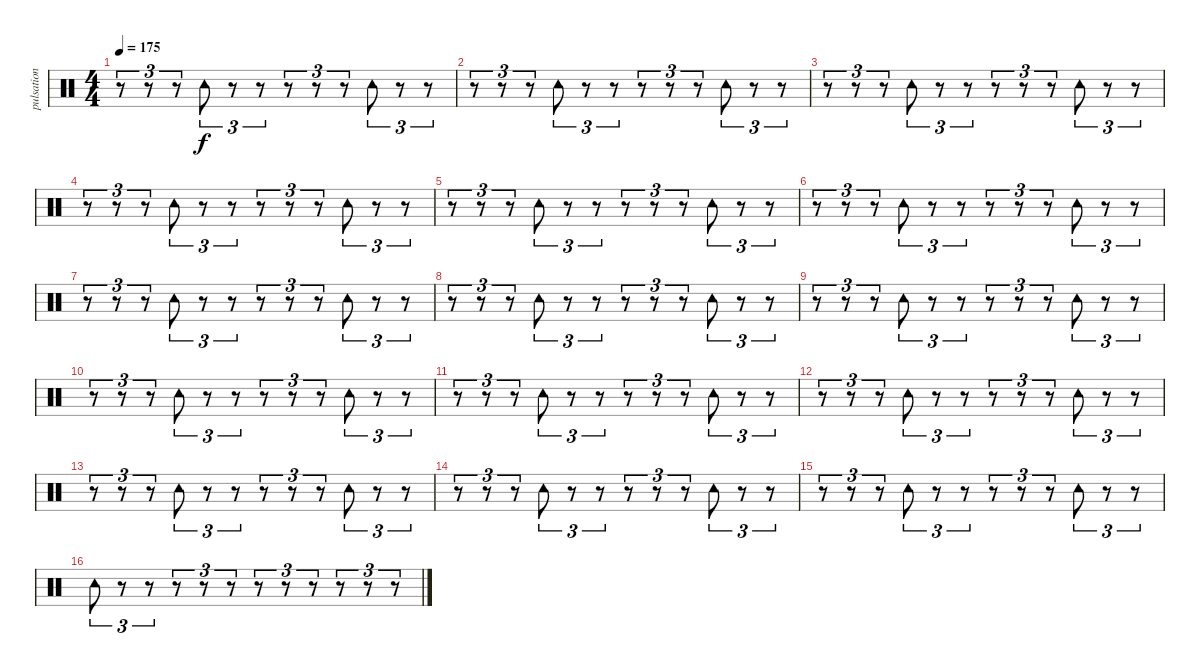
\track ("pulsation" "pulsation") {instrument percussion}
\staff {score}
\articulation defaults
\ts (4 4)
\tempo 175
\clef neutral
\ks c
r.8{tu (3 2) dy f} r.8{tu (3 2)} r.8{tu (3 2)} "Tambourine (hit)".8{tu (3 2)} r.8{tu (3 2)} r.8{tu (3 2)} r.8{tu (3 2)} r.8{tu (3 2)} r.8{tu (3 2)} "Tambourine (hit)".8{tu (3 2)} r.8{tu (3 2)} r.8{tu (3 2)} |
r.8{tu (3 2)} r.8{tu (3 2)} r.8{tu (3 2)} "Tambourine (hit)".8{tu (3 2)} r.8{tu (3 2)} r.8{tu (3 2)} r.8{tu (3 2)} r.8{tu (3 2)} r.8{tu (3 2)} "Tambourine (hit)".8{tu (3 2)} r.8{tu (3 2)} r.8{tu (3 2)} |
r.8{tu (3 2)} r.8{tu (3 2)} r.8{tu (3 2)} "Tambourine (hit)".8{tu (3 2)} r.8{tu (3 2)} r.8{tu (3 2)} r.8{tu (3 2)} r.8{tu (3 2)} r.8{tu (3 2)} "Tambourine (hit)".8{tu (3 2)} r.8{tu (3 2)} r.8{tu (3 2)} |
r.8{tu (3 2)} r.8{tu (3 2)} r.8{tu (3 2)} "Tambourine (hit)".8{tu (3 2)} r.8{tu (3 2)} r.8{tu (3 2)} r.8{tu (3 2)} r.8{tu (3 2)} r.8{tu (3 2)} "Tambourine (hit)".8{tu (3 2)} r.8{tu (3 2)} r.8{tu (3 2)} |
r.8{tu (3 2)} r.8{tu (3 2)} r.8{tu (3 2)} "Tambourine (hit)".8{tu (3 2)} r.8{tu (3 2)} r.8{tu (3 2)} r.8{tu (3 2)} r.8{tu (3 2)} r.8{tu (3 2)} "Tambourine (hit)".8{tu (3 2)} r.8{tu (3 2)} r.8{tu (3 2)} |
r.8{tu (3 2)} r.8{tu (3 2)} r.8{tu (3 2)} "Tambourine (hit)".8{tu (3 2)} r.8{tu (3 2)} r.8{tu (3 2)} r.8{tu (3 2)} r.8{tu (3 2)} r.8{tu (3 2)} "Tambourine (hit)".8{tu (3 2)} r.8{tu (3 2)} r.8{tu (3 2)} |
r.8{tu (3 2)} r.8{tu (3 2)} r.8{tu (3 2)} "Tambourine (hit)".8{tu (3 2)} r.8{tu (3 2)} r.8{tu (3 2)} r.8{tu (3 2)} r.8{tu (3 2)} r.8{tu (3 2)} "Tambourine (hit)".8{tu (3 2)} r.8{tu (3 2)} r.8{tu (3 2)} |
r.8{tu (3 2)} r.8{tu (3 2)} r.8{tu (3 2)} "Tambourine (hit)".8{tu (3 2)} r.8{tu (3 2)} r.8{tu (3 2)} r.8{tu (3 2)} r.8{tu (3 2)} r.8{tu (3 2)} "Tambourine (hit)".8{tu (3 2)} r.8{tu (3 2)} r.8{tu (3 2)} |
r.8{tu (3 2)} r.8{tu (3 2)} r.8{tu (3 2)} "Tambourine (hit)".8{tu (3 2)} r.8{tu (3 2)} r.8{tu (3 2)} r.8{tu (3 2)} r.8{tu (3 2)} r.8{tu (3 2)} "Tambourine (hit)".8{tu (3 2)} r.8{tu (3 2)} r.8{tu (3 2)} |
r.8{tu (3 2)} r.8{tu (3 2)} r.8{tu (3 2)} "Tambourine (hit)".8{tu (3 2)} r.8{tu (3 2)} r.8{tu (3 2)} r.8{tu (3 2)} r.8{tu (3 2)} r.8{tu (3 2)} "Tambourine (hit)".8{tu (3 2)} r.8{tu (3 2)} r.8{tu (3 2)} |
r.8{tu (3 2)} r.8{tu (3 2)} r.8{tu (3 2)} "Tambourine (hit)".8{tu (3 2)} r.8{tu (3 2)} r.8{tu (3 2)} r.8{tu (3 2)} r.8{tu (3 2)} r.8{tu (3 2)} "Tambourine (hit)".8{tu (3 2)} r.8{tu (3 2)} r.8{tu (3 2)} |
r.8{tu (3 2)} r.8{tu (3 2)} r.8{tu (3 2)} "Tambourine (hit)".8{tu (3 2)} r.8{tu (3 2)} r.8{tu (3 2)} r.8{tu (3 2)} r.8{tu (3 2)} r.8{tu (3 2)} "Tambourine (hit)".8{tu (3 2)} r.8{tu (3 2)} r.8{tu (3 2)} |
r.8{tu (3 2)} r.8{tu (3 2)} r.8{tu (3 2)} "Tambourine (hit)".8{tu (3 2)} r.8{tu (3 2)} r.8{tu (3 2)} r.8{tu (3 2)} r.8{tu (3 2)} r.8{tu (3 2)} "Tambourine (hit)".8{tu (3 2)} r.8{tu (3 2)} r.8{tu (3 2)} |
r.8{tu (3 2)} r.8{tu (3 2)} r.8{tu (3 2)} "Tambourine (hit)".8{tu (3 2)} r.8{tu (3 2)} r.8{tu (3 2)} r.8{tu (3 2)} r.8{tu (3 2)} r.8{tu (3 2)} "Tambourine (hit)".8{tu (3 2)} r.8{tu (3 2)} r.8{tu (3 2)} |
r.8{tu (3 2)} r.8{tu (3 2)} r.8{tu (3 2)} "Tambourine (hit)".8{tu (3 2)} r.8{tu (3 2)} r.8{tu (3 2)} r.8{tu (3 2)} r.8{tu (3 2)} r.8{tu (3 2)} "Tambourine (hit)".8{tu (3 2)} r.8{tu (3 2)} r.8{tu (3 2)} |
"Tambourine (hit)".8{tu (3 2)} r.8{tu (3 2)} r.8{tu (3 2)} r.8{tu (3 2)} r.8{tu (3 2)} r.8{tu (3 2)} r.8{tu (3 2)} r.8{tu (3 2)} r.8{tu (3 2)} r.8{tu (3 2)} r.8{tu (3 2)} r.8{tu (3 2)}
